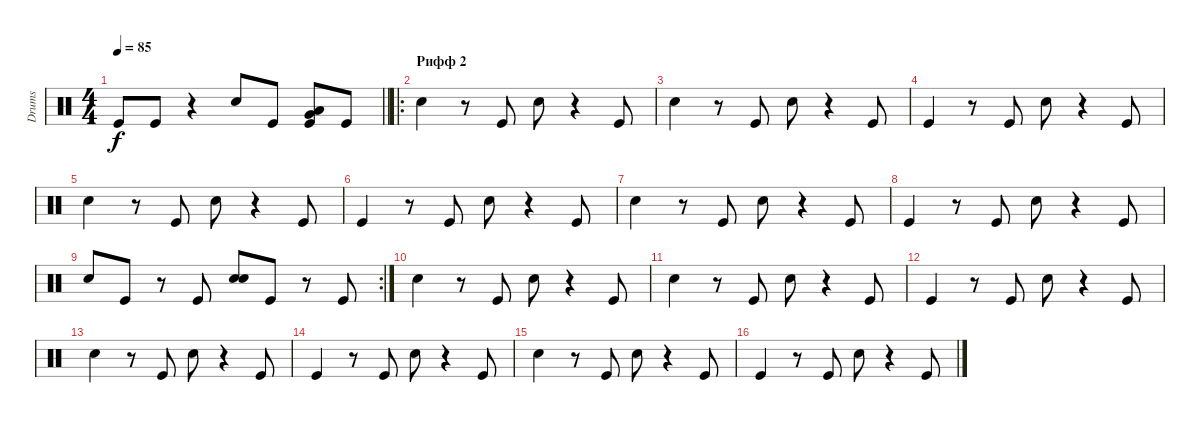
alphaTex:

\track ("Drums" "Drums") {instrument percussion}
\staff {score}
\articulation defaults
\ts (4 4)
\tempo 85
\clef neutral
\barLineRight lightlight
\ks c "Kick (hit)".8{dy f} "Kick (hit)".8
r.4 "Electric Snare (hit)".8 "Kick (hit)".8 ("Very Low Tom (hit)" "Low Floor Tom (hit)" "Kick (hit)").8 "Kick (hit)".8 |
\ro
\section ("" "Рифф 2")
"Electric Snare (hit)".4 r.8 "Kick (hit)".8 "Electric Snare (hit)".8 r.4 "Kick (hit)".8 |
"Electric Snare (hit)".4 r.8 "Kick (hit)".8 "Electric Snare (hit)".8 r.4 "Kick (hit)".8 |
"Kick (hit)".4 r.8 "Kick (hit)".8 "Electric Snare (hit)".8 r.4 "Kick (hit)".8 |
"Electric Snare (hit)".4 r.8 "Kick (hit)".8 "Electric Snare (hit)".8 r.4 "Kick (hit)".8 |
"Kick (hit)".4 r.8 "Kick (hit)".8 "Electric Snare (hit)".8 r.4 "Kick (hit)".8 |
"Electric Snare (hit)".4 r.8 "Kick (hit)".8 "Electric Snare (hit)".8 r.4 "Kick (hit)".8 |
"Kick (hit)".4 r.8 "Kick (hit)".8 "Electric Snare (hit)".8 r.4 "Kick (hit)".8 |
\rc 2 "Electric Snare (hit)".8 "Kick (hit)".8
r.8 "Kick (hit)".8 ("Electric Snare (hit)" "Electric Snare (hit)").8{bu 60} "Kick (hit)".8 r.8 "Kick (hit)".8 |
"Electric Snare (hit)".4 r.8 "Kick (hit)".8 "Electric Snare (hit)".8 r.4 "Kick (hit)".8 |
"Electric Snare (hit)".4 r.8 "Kick (hit)".8 "Electric Snare (hit)".8 r.4 "Kick (hit)".8 |
"Kick (hit)".4 r.8 "Kick (hit)".8 "Electric Snare (hit)".8 r.4 "Kick (hit)".8 |
"Electric Snare (hit)".4 r.8 "Kick (hit)".8 "Electric Snare (hit)".8 r.4 "Kick (hit)".8 |
"Kick (hit)".4 r.8 "Kick (hit)".8 "Electric Snare (hit)".8 r.4 "Kick (hit)".8 |
"Electric Snare (hit)".4 r.8 "Kick (hit)".8 "Electric Snare (hit)".8 r.4 "Kick (hit)".8 |
"Kick (hit)".4 r.8 "Kick (hit)".8 "Electric Snare (hit)".8 r.4 "Kick (hit)".8
